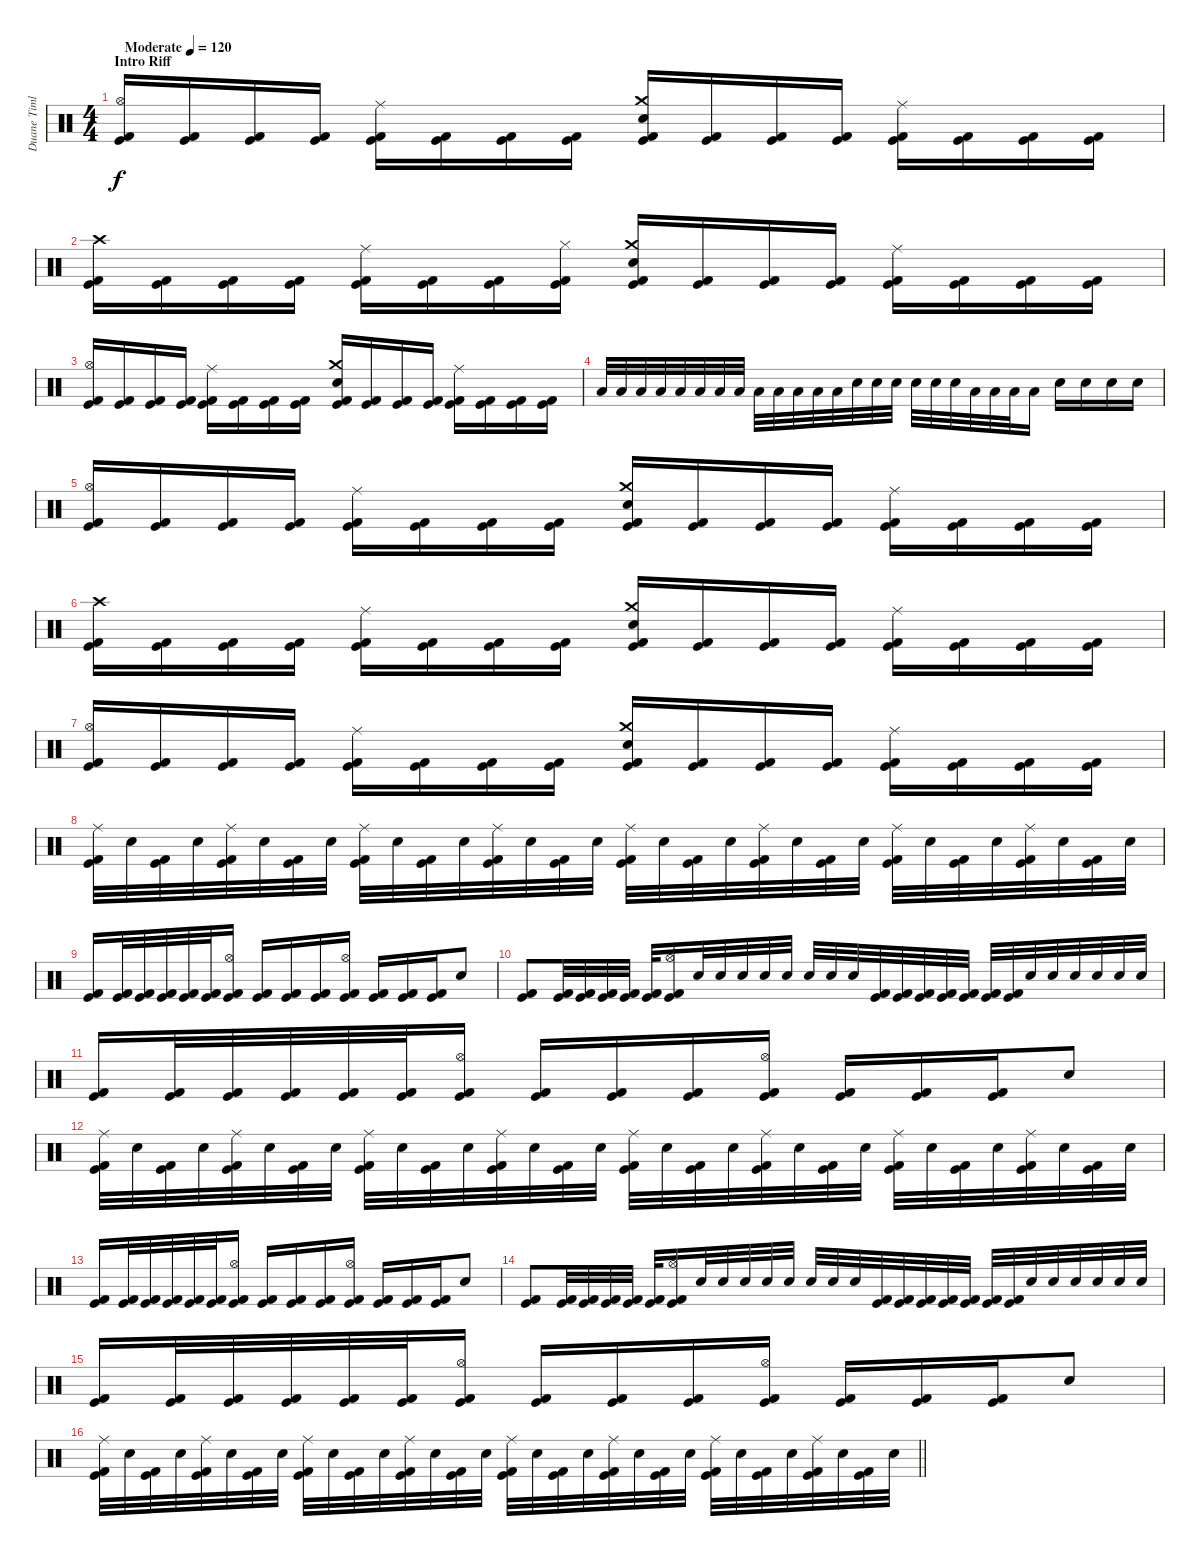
\track ("Duane Timlin" "Duane Timl") {instrument percussion}
\staff {score}
\articulation defaults
\ts (4 4)
\section ("" "Intro Riff")
\tempo (120 "Moderate")
\clef neutral
\ks c
("Kick (hit)" "Hi-Hat (open)" "Kick (hit) 2").16{dy f} ("Kick (hit)" "Kick (hit) 2").16 ("Kick (hit)" "Kick (hit) 2").16 ("Kick (hit)" "Kick (hit) 2").16 ("Kick (hit)" "Ride (middle)" "Kick (hit) 2").16 ("Kick (hit)" "Kick (hit) 2").16 ("Kick (hit)" "Kick (hit) 2").16 ("Kick (hit)" "Kick (hit) 2").16 ("Kick (hit)" "Crash medium (hit)" "Snare (hit) 2" "Kick (hit) 2").16 ("Kick (hit)" "Kick (hit) 2").16 ("Kick (hit)" "Kick (hit) 2").16 ("Kick (hit)" "Kick (hit) 2").16 ("Kick (hit)" "Ride (middle)" "Kick (hit) 2").16 ("Kick (hit)" "Kick (hit) 2").16 ("Kick (hit)" "Kick (hit) 2").16 ("Kick (hit)" "Kick (hit) 2").16 |
("Kick (hit)" "Crash high (hit)" "Kick (hit) 2").16 ("Kick (hit)" "Kick (hit) 2").16 ("Kick (hit)" "Kick (hit) 2").16 ("Kick (hit)" "Kick (hit) 2").16 ("Kick (hit)" "Ride (middle)" "Kick (hit) 2").16 ("Kick (hit)" "Kick (hit) 2").16 ("Kick (hit)" "Kick (hit) 2").16 ("Kick (hit)" "Hi-Hat (closed)" "Kick (hit) 2").16 ("Kick (hit)" "Crash medium (hit)" "Snare (hit) 2" "Kick (hit) 2").16 ("Kick (hit)" "Kick (hit) 2").16 ("Kick (hit)" "Kick (hit) 2").16 ("Kick (hit)" "Kick (hit) 2").16 ("Kick (hit)" "Ride (middle)" "Kick (hit) 2").16 ("Kick (hit)" "Kick (hit) 2").16 ("Kick (hit)" "Kick (hit) 2").16 ("Kick (hit)" "Kick (hit) 2").16 |
("Kick (hit)" "Hi-Hat (open)" "Kick (hit) 2").16 ("Kick (hit)" "Kick (hit) 2").16 ("Kick (hit)" "Kick (hit) 2").16 ("Kick (hit)" "Kick (hit) 2").16 ("Kick (hit)" "Ride (middle)" "Kick (hit) 2").16 ("Kick (hit)" "Kick (hit) 2").16 ("Kick (hit)" "Kick (hit) 2").16 ("Kick (hit)" "Kick (hit) 2").16 ("Kick (hit)" "Crash medium (hit)" "Snare (hit) 2" "Kick (hit) 2").16 ("Kick (hit)" "Kick (hit) 2").16 ("Kick (hit)" "Kick (hit) 2").16 ("Kick (hit)" "Kick (hit) 2").16 ("Kick (hit)" "Ride (middle)" "Kick (hit) 2").16 ("Kick (hit)" "Kick (hit) 2").16 ("Kick (hit)" "Kick (hit) 2").16 ("Kick (hit)" "Kick (hit) 2").16 |
"Low Floor Tom (hit)".32 "Low Floor Tom (hit)".32 "Low Floor Tom (hit)".32 "Low Floor Tom (hit)".32 "Low Floor Tom (hit)".32 "Low Floor Tom (hit)".32 "Low Floor Tom (hit)".32 "Low Floor Tom (hit)".32 "Low Floor Tom (hit)".32 "Low Floor Tom (hit)".32 "Low Floor Tom (hit)".32 "Low Floor Tom (hit)".32 "Low Floor Tom (hit)".32 "Snare (hit) 2".32 "Snare (hit) 2".32 "Snare (hit) 2".32 "Snare (hit) 2".32 "Snare (hit) 2".32 "Snare (hit) 2".32 "Low Floor Tom (hit)".32 "Low Floor Tom (hit)".32 "Low Floor Tom (hit)".32 "Low Floor Tom (hit)".16 "Snare (hit) 2".16 "Snare (hit) 2".16 "Snare (hit) 2".16 "Snare (hit) 2".16 |
("Kick (hit)" "Hi-Hat (open)" "Kick (hit) 2").16 ("Kick (hit)" "Kick (hit) 2").16 ("Kick (hit)" "Kick (hit) 2").16 ("Kick (hit)" "Kick (hit) 2").16 ("Kick (hit)" "Ride (middle)" "Kick (hit) 2").16 ("Kick (hit)" "Kick (hit) 2").16 ("Kick (hit)" "Kick (hit) 2").16 ("Kick (hit)" "Kick (hit) 2").16 ("Kick (hit)" "Crash medium (hit)" "Snare (hit) 2" "Kick (hit) 2").16 ("Kick (hit)" "Kick (hit) 2").16 ("Kick (hit)" "Kick (hit) 2").16 ("Kick (hit)" "Kick (hit) 2").16 ("Kick (hit)" "Ride (middle)" "Kick (hit) 2").16 ("Kick (hit)" "Kick (hit) 2").16 ("Kick (hit)" "Kick (hit) 2").16 ("Kick (hit)" "Kick (hit) 2").16 |
("Kick (hit)" "Crash high (hit)" "Kick (hit) 2").16 ("Kick (hit)" "Kick (hit) 2").16 ("Kick (hit)" "Kick (hit) 2").16 ("Kick (hit)" "Kick (hit) 2").16 ("Kick (hit)" "Ride (middle)" "Kick (hit) 2").16 ("Kick (hit)" "Kick (hit) 2").16 ("Kick (hit)" "Kick (hit) 2").16 ("Kick (hit)" "Kick (hit) 2").16 ("Kick (hit)" "Crash medium (hit)" "Snare (hit) 2" "Kick (hit) 2").16 ("Kick (hit)" "Kick (hit) 2").16 ("Kick (hit)" "Kick (hit) 2").16 ("Kick (hit)" "Kick (hit) 2").16 ("Kick (hit)" "Ride (middle)" "Kick (hit) 2").16 ("Kick (hit)" "Kick (hit) 2").16 ("Kick (hit)" "Kick (hit) 2").16 ("Kick (hit)" "Kick (hit) 2").16 |
("Kick (hit)" "Hi-Hat (open)" "Kick (hit) 2").16 ("Kick (hit)" "Kick (hit) 2").16 ("Kick (hit)" "Kick (hit) 2").16 ("Kick (hit)" "Kick (hit) 2").16 ("Kick (hit)" "Ride (middle)" "Kick (hit) 2").16 ("Kick (hit)" "Kick (hit) 2").16 ("Kick (hit)" "Kick (hit) 2").16 ("Kick (hit)" "Kick (hit) 2").16 ("Kick (hit)" "Crash medium (hit)" "Snare (hit) 2" "Kick (hit) 2").16 ("Kick (hit)" "Kick (hit) 2").16 ("Kick (hit)" "Kick (hit) 2").16 ("Kick (hit)" "Kick (hit) 2").16 ("Kick (hit)" "Ride (middle)" "Kick (hit) 2").16 ("Kick (hit)" "Kick (hit) 2").16 ("Kick (hit)" "Kick (hit) 2").16 ("Kick (hit)" "Kick (hit) 2").16 |
("Ride (middle)" "Kick (hit)" "Kick (hit) 2").32 "Snare (hit) 2".32 ("Kick (hit)" "Kick (hit) 2").32 "Snare (hit) 2".32 ("Ride (middle)" "Kick (hit)" "Kick (hit) 2").32 "Snare (hit) 2".32 ("Kick (hit)" "Kick (hit) 2").32 "Snare (hit) 2".32 ("Ride (middle)" "Kick (hit)" "Kick (hit) 2").32 "Snare (hit) 2".32 ("Kick (hit)" "Kick (hit) 2").32 "Snare (hit) 2".32 ("Ride (middle)" "Kick (hit)" "Kick (hit) 2").32 "Snare (hit) 2".32 ("Kick (hit)" "Kick (hit) 2").32 "Snare (hit) 2".32 ("Ride (middle)" "Kick (hit)" "Kick (hit) 2").32 "Snare (hit) 2".32 ("Kick (hit)" "Kick (hit) 2").32 "Snare (hit) 2".32 ("Ride (middle)" "Kick (hit)" "Kick (hit) 2").32 "Snare (hit) 2".32 ("Kick (hit)" "Kick (hit) 2").32 "Snare (hit) 2".32 ("Ride (middle)" "Kick (hit)" "Kick (hit) 2").32 "Snare (hit) 2".32 ("Kick (hit)" "Kick (hit) 2").32 "Snare (hit) 2".32 ("Ride (middle)" "Kick (hit)" "Kick (hit) 2").32 "Snare (hit) 2".32 ("Kick (hit)" "Kick (hit) 2").32 "Snare (hit) 2".32 |
("Kick (hit)" "Kick (hit) 2").16 ("Kick (hit)" "Kick (hit) 2").32 ("Kick (hit)" "Kick (hit) 2").32 ("Kick (hit)" "Kick (hit) 2").32 ("Kick (hit)" "Kick (hit) 2").32 ("Kick (hit)" "Kick (hit) 2").32 ("Hi-Hat (open)" "Kick (hit)" "Kick (hit) 2").16 ("Kick (hit)" "Kick (hit) 2").16 ("Kick (hit)" "Kick (hit) 2").16 ("Kick (hit)" "Kick (hit) 2").16 ("Hi-Hat (open)" "Kick (hit)" "Kick (hit) 2").16 ("Kick (hit)" "Kick (hit) 2").16 ("Kick (hit)" "Kick (hit) 2").16 ("Kick (hit)" "Kick (hit) 2").16 "Snare (hit) 2".8 |
("Kick (hit)" "Kick (hit) 2").8 ("Kick (hit)" "Kick (hit) 2").32 ("Kick (hit)" "Kick (hit) 2").32 ("Kick (hit)" "Kick (hit) 2").32 ("Kick (hit)" "Kick (hit) 2").32 ("Kick (hit)" "Kick (hit) 2").32 ("Hi-Hat (open)" "Kick (hit)" "Kick (hit) 2").16 "Snare (hit) 2".32 "Snare (hit) 2".32 "Snare (hit) 2".32 "Snare (hit) 2".32 "Snare (hit) 2".32 "Snare (hit) 2".32 "Snare (hit) 2".32 "Snare (hit) 2".32 ("Kick (hit)" "Kick (hit) 2").32 ("Kick (hit)" "Kick (hit) 2").32 ("Kick (hit)" "Kick (hit) 2").32 ("Kick (hit)" "Kick (hit) 2").32 ("Kick (hit)" "Kick (hit) 2").32 ("Kick (hit)" "Kick (hit) 2").32 ("Kick (hit)" "Kick (hit) 2").32 "Snare (hit) 2".32 "Snare (hit) 2".32 "Snare (hit) 2".32 "Snare (hit) 2".32 "Snare (hit) 2".32 "Snare (hit) 2".32 |
("Kick (hit)" "Kick (hit) 2").16 ("Kick (hit)" "Kick (hit) 2").32 ("Kick (hit)" "Kick (hit) 2").32 ("Kick (hit)" "Kick (hit) 2").32 ("Kick (hit)" "Kick (hit) 2").32 ("Kick (hit)" "Kick (hit) 2").32 ("Hi-Hat (open)" "Kick (hit)" "Kick (hit) 2").16 ("Kick (hit)" "Kick (hit) 2").16 ("Kick (hit)" "Kick (hit) 2").16 ("Kick (hit)" "Kick (hit) 2").16 ("Hi-Hat (open)" "Kick (hit)" "Kick (hit) 2").16 ("Kick (hit)" "Kick (hit) 2").16 ("Kick (hit)" "Kick (hit) 2").16 ("Kick (hit)" "Kick (hit) 2").16 "Snare (hit) 2".8 |
("Ride (middle)" "Kick (hit)" "Kick (hit) 2").32 "Snare (hit) 2".32 ("Kick (hit)" "Kick (hit) 2").32 "Snare (hit) 2".32 ("Ride (middle)" "Kick (hit)" "Kick (hit) 2").32 "Snare (hit) 2".32 ("Kick (hit)" "Kick (hit) 2").32 "Snare (hit) 2".32 ("Ride (middle)" "Kick (hit)" "Kick (hit) 2").32 "Snare (hit) 2".32 ("Kick (hit)" "Kick (hit) 2").32 "Snare (hit) 2".32 ("Ride (middle)" "Kick (hit)" "Kick (hit) 2").32 "Snare (hit) 2".32 ("Kick (hit)" "Kick (hit) 2").32 "Snare (hit) 2".32 ("Ride (middle)" "Kick (hit)" "Kick (hit) 2").32 "Snare (hit) 2".32 ("Kick (hit)" "Kick (hit) 2").32 "Snare (hit) 2".32 ("Ride (middle)" "Kick (hit)" "Kick (hit) 2").32 "Snare (hit) 2".32 ("Kick (hit)" "Kick (hit) 2").32 "Snare (hit) 2".32 ("Ride (middle)" "Kick (hit)" "Kick (hit) 2").32 "Snare (hit) 2".32 ("Kick (hit)" "Kick (hit) 2").32 "Snare (hit) 2".32 ("Ride (middle)" "Kick (hit)" "Kick (hit) 2").32 "Snare (hit) 2".32 ("Kick (hit)" "Kick (hit) 2").32 "Snare (hit) 2".32 |
("Kick (hit)" "Kick (hit) 2").16 ("Kick (hit)" "Kick (hit) 2").32 ("Kick (hit)" "Kick (hit) 2").32 ("Kick (hit)" "Kick (hit) 2").32 ("Kick (hit)" "Kick (hit) 2").32 ("Kick (hit)" "Kick (hit) 2").32 ("Hi-Hat (open)" "Kick (hit)" "Kick (hit) 2").16 ("Kick (hit)" "Kick (hit) 2").16 ("Kick (hit)" "Kick (hit) 2").16 ("Kick (hit)" "Kick (hit) 2").16 ("Hi-Hat (open)" "Kick (hit)" "Kick (hit) 2").16 ("Kick (hit)" "Kick (hit) 2").16 ("Kick (hit)" "Kick (hit) 2").16 ("Kick (hit)" "Kick (hit) 2").16 "Snare (hit) 2".8 |
("Kick (hit)" "Kick (hit) 2").8 ("Kick (hit)" "Kick (hit) 2").32 ("Kick (hit)" "Kick (hit) 2").32 ("Kick (hit)" "Kick (hit) 2").32 ("Kick (hit)" "Kick (hit) 2").32 ("Kick (hit)" "Kick (hit) 2").32 ("Hi-Hat (open)" "Kick (hit)" "Kick (hit) 2").16 "Snare (hit) 2".32 "Snare (hit) 2".32 "Snare (hit) 2".32 "Snare (hit) 2".32 "Snare (hit) 2".32 "Snare (hit) 2".32 "Snare (hit) 2".32 "Snare (hit) 2".32 ("Kick (hit)" "Kick (hit) 2").32 ("Kick (hit)" "Kick (hit) 2").32 ("Kick (hit)" "Kick (hit) 2").32 ("Kick (hit)" "Kick (hit) 2").32 ("Kick (hit)" "Kick (hit) 2").32 ("Kick (hit)" "Kick (hit) 2").32 ("Kick (hit)" "Kick (hit) 2").32 "Snare (hit) 2".32 "Snare (hit) 2".32 "Snare (hit) 2".32 "Snare (hit) 2".32 "Snare (hit) 2".32 "Snare (hit) 2".32 |
("Kick (hit)" "Kick (hit) 2").16 ("Kick (hit)" "Kick (hit) 2").32 ("Kick (hit)" "Kick (hit) 2").32 ("Kick (hit)" "Kick (hit) 2").32 ("Kick (hit)" "Kick (hit) 2").32 ("Kick (hit)" "Kick (hit) 2").32 ("Hi-Hat (open)" "Kick (hit)" "Kick (hit) 2").16 ("Kick (hit)" "Kick (hit) 2").16 ("Kick (hit)" "Kick (hit) 2").16 ("Kick (hit)" "Kick (hit) 2").16 ("Hi-Hat (open)" "Kick (hit)" "Kick (hit) 2").16 ("Kick (hit)" "Kick (hit) 2").16 ("Kick (hit)" "Kick (hit) 2").16 ("Kick (hit)" "Kick (hit) 2").16 "Snare (hit) 2".8 |
\barLineRight lightlight
("Ride (middle)" "Kick (hit)" "Kick (hit) 2").32 "Snare (hit) 2".32 ("Kick (hit)" "Kick (hit) 2").32 "Snare (hit) 2".32 ("Ride (middle)" "Kick (hit)" "Kick (hit) 2").32 "Snare (hit) 2".32 ("Kick (hit)" "Kick (hit) 2").32 "Snare (hit) 2".32 ("Ride (middle)" "Kick (hit)" "Kick (hit) 2").32 "Snare (hit) 2".32 ("Kick (hit)" "Kick (hit) 2").32 "Snare (hit) 2".32 ("Ride (middle)" "Kick (hit)" "Kick (hit) 2").32 "Snare (hit) 2".32 ("Kick (hit)" "Kick (hit) 2").32 "Snare (hit) 2".32 ("Ride (middle)" "Kick (hit)" "Kick (hit) 2").32 "Snare (hit) 2".32 ("Kick (hit)" "Kick (hit) 2").32 "Snare (hit) 2".32 ("Ride (middle)" "Kick (hit)" "Kick (hit) 2").32 "Snare (hit) 2".32 ("Kick (hit)" "Kick (hit) 2").32 "Snare (hit) 2".32 ("Ride (middle)" "Kick (hit)" "Kick (hit) 2").32 "Snare (hit) 2".32 ("Kick (hit)" "Kick (hit) 2").32 "Snare (hit) 2".32 ("Ride (middle)" "Kick (hit)" "Kick (hit) 2").32 "Snare (hit) 2".32 ("Kick (hit)" "Kick (hit) 2").32 "Snare (hit) 2".32
